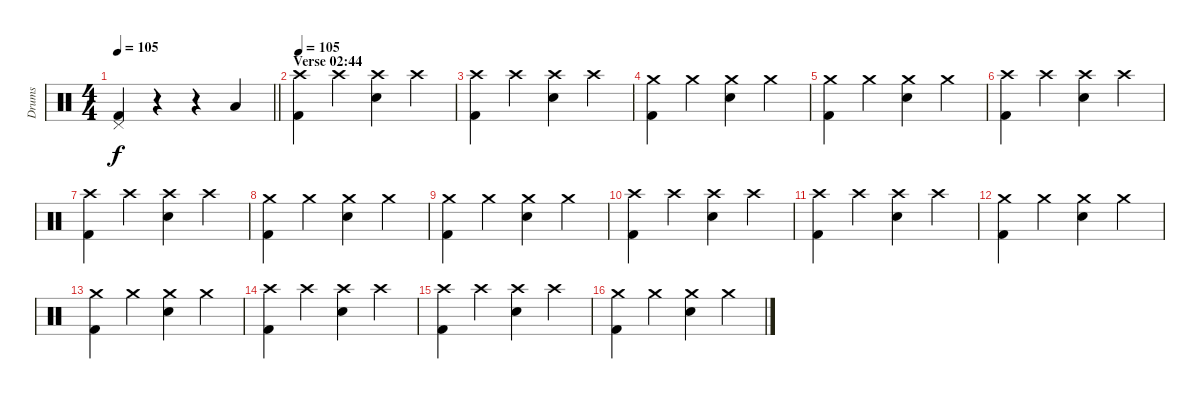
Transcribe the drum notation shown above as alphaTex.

\track ("Drums" "Drums") {instrument percussion}
\staff {score}
\articulation defaults
\ts (4 4)
\tempo 105
\clef neutral
\barLineRight lightlight
\ks c
("Pedal Hi-Hat (hit)" "Kick (hit) 2").4{dy f} r.4 r.4 "Low Tom (hit)".4 |
\section ("" "Verse 02:44")
\tempo 105
("Crash high (hit)" "Kick (hit) 2").4 "Crash high (hit)".4 ("Crash high (hit)" "Electric Snare (hit)").4 "Crash high (hit)".4 |
("Crash high (hit)" "Kick (hit) 2").4 "Crash high (hit)".4 ("Crash high (hit)" "Electric Snare (hit)").4 "Crash high (hit)".4 |
("Crash medium (hit)" "Kick (hit) 2").4 "Crash medium (hit)".4 ("Crash medium (hit)" "Electric Snare (hit)").4 "Crash medium (hit)".4 |
("Crash medium (hit)" "Kick (hit) 2").4 "Crash medium (hit)".4 ("Crash medium (hit)" "Electric Snare (hit)").4 "Crash medium (hit)".4 |
("Crash high (hit)" "Kick (hit) 2").4 "Crash high (hit)".4 ("Crash high (hit)" "Electric Snare (hit)").4 "Crash high (hit)".4 |
("Crash high (hit)" "Kick (hit) 2").4 "Crash high (hit)".4 ("Crash high (hit)" "Electric Snare (hit)").4 "Crash high (hit)".4 |
("Crash medium (hit)" "Kick (hit) 2").4 "Crash medium (hit)".4 ("Crash medium (hit)" "Electric Snare (hit)").4 "Crash medium (hit)".4 |
("Crash medium (hit)" "Kick (hit) 2").4 "Crash medium (hit)".4 ("Crash medium (hit)" "Electric Snare (hit)").4 "Crash medium (hit)".4 |
("Crash high (hit)" "Kick (hit) 2").4 "Crash high (hit)".4 ("Crash high (hit)" "Electric Snare (hit)").4 "Crash high (hit)".4 |
("Crash high (hit)" "Kick (hit) 2").4 "Crash high (hit)".4 ("Crash high (hit)" "Electric Snare (hit)").4 "Crash high (hit)".4 |
("Crash medium (hit)" "Kick (hit) 2").4 "Crash medium (hit)".4 ("Crash medium (hit)" "Electric Snare (hit)").4 "Crash medium (hit)".4 |
("Crash medium (hit)" "Kick (hit) 2").4 "Crash medium (hit)".4 ("Crash medium (hit)" "Electric Snare (hit)").4 "Crash medium (hit)".4 |
("Crash high (hit)" "Kick (hit) 2").4 "Crash high (hit)".4 ("Crash high (hit)" "Electric Snare (hit)").4 "Crash high (hit)".4 |
("Crash high (hit)" "Kick (hit) 2").4 "Crash high (hit)".4 ("Crash high (hit)" "Electric Snare (hit)").4 "Crash high (hit)".4 |
("Crash medium (hit)" "Kick (hit) 2").4 "Crash medium (hit)".4 ("Crash medium (hit)" "Electric Snare (hit)").4 "Crash medium (hit)".4
